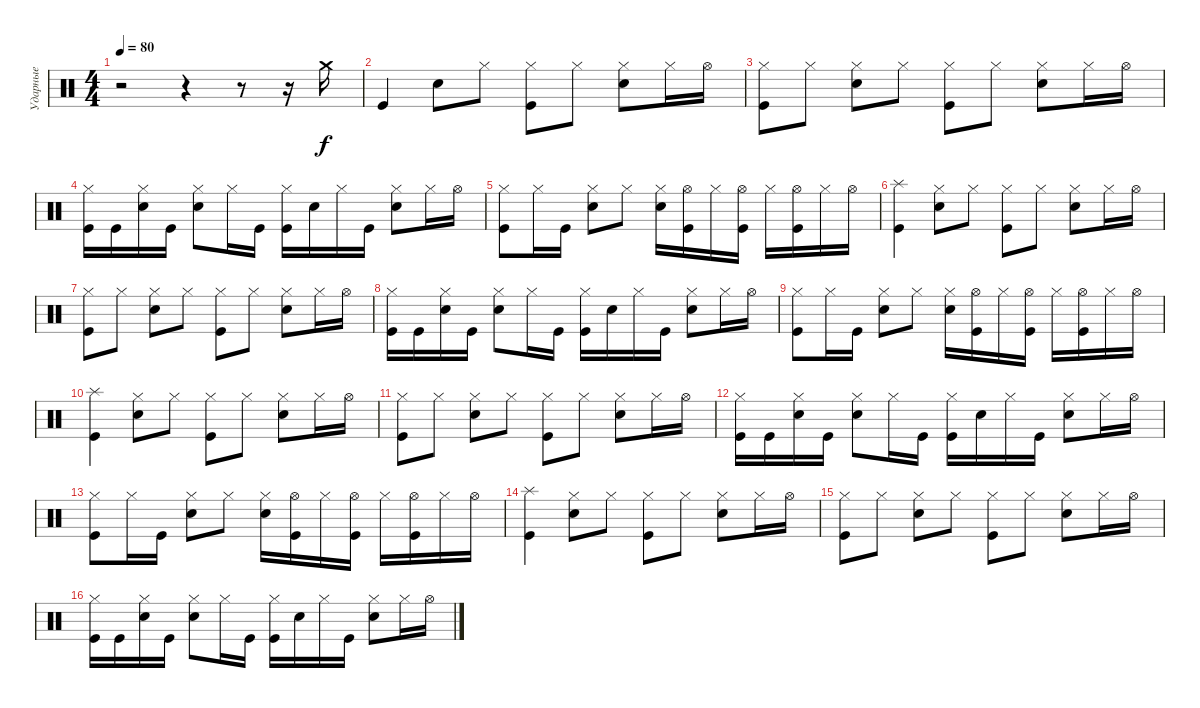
\track ("Ударные" "Ударные") {instrument percussion}
\staff {score}
\articulation defaults
\ts (4 4)
\tempo 80
\clef neutral
\ks c
r.2{dy f} r.4 r.8 r.16 "Crash medium (hit)".16 |
"Kick (hit)".4 "Snare (hit) 2".8 "Hi-Hat (closed)".8 ("Kick (hit)" "Hi-Hat (closed)").8 "Hi-Hat (closed)".8 ("Snare (hit) 2" "Hi-Hat (closed)").8 "Hi-Hat (closed)".16 "Hi-Hat (open)".16 |
("Kick (hit)" "Hi-Hat (closed)").8 "Hi-Hat (closed)".8 ("Snare (hit) 2" "Hi-Hat (closed)").8 "Hi-Hat (closed)".8 ("Kick (hit)" "Hi-Hat (closed)").8 "Hi-Hat (closed)".8 ("Snare (hit) 2" "Hi-Hat (closed)").8 "Hi-Hat (closed)".16 "Hi-Hat (open)".16 |
("Kick (hit)" "Hi-Hat (closed)").16 "Kick (hit)".16 ("Snare (hit) 2" "Hi-Hat (closed)").16 "Kick (hit)".16 ("Snare (hit) 2" "Hi-Hat (closed)").8 "Hi-Hat (closed)".16 "Kick (hit)".16 ("Kick (hit)" "Hi-Hat (closed)").16 "Snare (hit) 2".16 "Hi-Hat (closed)".16 "Kick (hit)".16 ("Snare (hit) 2" "Hi-Hat (closed)").8 "Hi-Hat (closed)".16 "Hi-Hat (open)".16 |
("Kick (hit)" "Hi-Hat (closed)").8 "Hi-Hat (closed)".16 "Kick (hit)".16 ("Snare (hit) 2" "Hi-Hat (closed)").8 "Hi-Hat (closed)".8 ("Snare (hit) 2" "Hi-Hat (closed)").16 ("Kick (hit)" "Hi-Hat (open)").16 "Hi-Hat (closed)".16 ("Kick (hit)" "Hi-Hat (open)").16 "Hi-Hat (closed)".16 ("Kick (hit)" "Hi-Hat (open)").16 "Hi-Hat (closed)".16 "Hi-Hat (open)".16 |
("Kick (hit)" "Splash (hit)").4 ("Snare (hit) 2" "Hi-Hat (closed)").8 "Hi-Hat (closed)".8 ("Kick (hit)" "Hi-Hat (closed)").8 "Hi-Hat (closed)".8 ("Snare (hit) 2" "Hi-Hat (closed)").8 "Hi-Hat (closed)".16 "Hi-Hat (open)".16 |
("Kick (hit)" "Hi-Hat (closed)").8 "Hi-Hat (closed)".8 ("Snare (hit) 2" "Hi-Hat (closed)").8 "Hi-Hat (closed)".8 ("Kick (hit)" "Hi-Hat (closed)").8 "Hi-Hat (closed)".8 ("Snare (hit) 2" "Hi-Hat (closed)").8 "Hi-Hat (closed)".16 "Hi-Hat (open)".16 |
("Kick (hit)" "Hi-Hat (closed)").16 "Kick (hit)".16 ("Snare (hit) 2" "Hi-Hat (closed)").16 "Kick (hit)".16 ("Snare (hit) 2" "Hi-Hat (closed)").8 "Hi-Hat (closed)".16 "Kick (hit)".16 ("Kick (hit)" "Hi-Hat (closed)").16 "Snare (hit) 2".16 "Hi-Hat (closed)".16 "Kick (hit)".16 ("Snare (hit) 2" "Hi-Hat (closed)").8 "Hi-Hat (closed)".16 "Hi-Hat (open)".16 |
("Kick (hit)" "Hi-Hat (closed)").8 "Hi-Hat (closed)".16 "Kick (hit)".16 ("Snare (hit) 2" "Hi-Hat (closed)").8 "Hi-Hat (closed)".8 ("Snare (hit) 2" "Hi-Hat (closed)").16 ("Kick (hit)" "Hi-Hat (open)").16 "Hi-Hat (closed)".16 ("Kick (hit)" "Hi-Hat (open)").16 "Hi-Hat (closed)".16 ("Kick (hit)" "Hi-Hat (open)").16 "Hi-Hat (closed)".16 "Hi-Hat (open)".16 |
("Kick (hit)" "Splash (hit)").4 ("Snare (hit) 2" "Hi-Hat (closed)").8 "Hi-Hat (closed)".8 ("Kick (hit)" "Hi-Hat (closed)").8 "Hi-Hat (closed)".8 ("Snare (hit) 2" "Hi-Hat (closed)").8 "Hi-Hat (closed)".16 "Hi-Hat (open)".16 |
("Kick (hit)" "Hi-Hat (closed)").8 "Hi-Hat (closed)".8 ("Snare (hit) 2" "Hi-Hat (closed)").8 "Hi-Hat (closed)".8 ("Kick (hit)" "Hi-Hat (closed)").8 "Hi-Hat (closed)".8 ("Snare (hit) 2" "Hi-Hat (closed)").8 "Hi-Hat (closed)".16 "Hi-Hat (open)".16 |
("Kick (hit)" "Hi-Hat (closed)").16 "Kick (hit)".16 ("Snare (hit) 2" "Hi-Hat (closed)").16 "Kick (hit)".16 ("Snare (hit) 2" "Hi-Hat (closed)").8 "Hi-Hat (closed)".16 "Kick (hit)".16 ("Kick (hit)" "Hi-Hat (closed)").16 "Snare (hit) 2".16 "Hi-Hat (closed)".16 "Kick (hit)".16 ("Snare (hit) 2" "Hi-Hat (closed)").8 "Hi-Hat (closed)".16 "Hi-Hat (open)".16 |
("Kick (hit)" "Hi-Hat (closed)").8 "Hi-Hat (closed)".16 "Kick (hit)".16 ("Snare (hit) 2" "Hi-Hat (closed)").8 "Hi-Hat (closed)".8 ("Snare (hit) 2" "Hi-Hat (closed)").16 ("Kick (hit)" "Hi-Hat (open)").16 "Hi-Hat (closed)".16 ("Kick (hit)" "Hi-Hat (open)").16 "Hi-Hat (closed)".16 ("Kick (hit)" "Hi-Hat (open)").16 "Hi-Hat (closed)".16 "Hi-Hat (open)".16 |
("Kick (hit)" "Splash (hit)").4 ("Snare (hit) 2" "Hi-Hat (closed)").8 "Hi-Hat (closed)".8 ("Kick (hit)" "Hi-Hat (closed)").8 "Hi-Hat (closed)".8 ("Snare (hit) 2" "Hi-Hat (closed)").8 "Hi-Hat (closed)".16 "Hi-Hat (open)".16 |
("Kick (hit)" "Hi-Hat (closed)").8 "Hi-Hat (closed)".8 ("Snare (hit) 2" "Hi-Hat (closed)").8 "Hi-Hat (closed)".8 ("Kick (hit)" "Hi-Hat (closed)").8 "Hi-Hat (closed)".8 ("Snare (hit) 2" "Hi-Hat (closed)").8 "Hi-Hat (closed)".16 "Hi-Hat (open)".16 |
("Kick (hit)" "Hi-Hat (closed)").16 "Kick (hit)".16 ("Snare (hit) 2" "Hi-Hat (closed)").16 "Kick (hit)".16 ("Snare (hit) 2" "Hi-Hat (closed)").8 "Hi-Hat (closed)".16 "Kick (hit)".16 ("Kick (hit)" "Hi-Hat (closed)").16 "Snare (hit) 2".16 "Hi-Hat (closed)".16 "Kick (hit)".16 ("Snare (hit) 2" "Hi-Hat (closed)").8 "Hi-Hat (closed)".16 "Hi-Hat (open)".16
